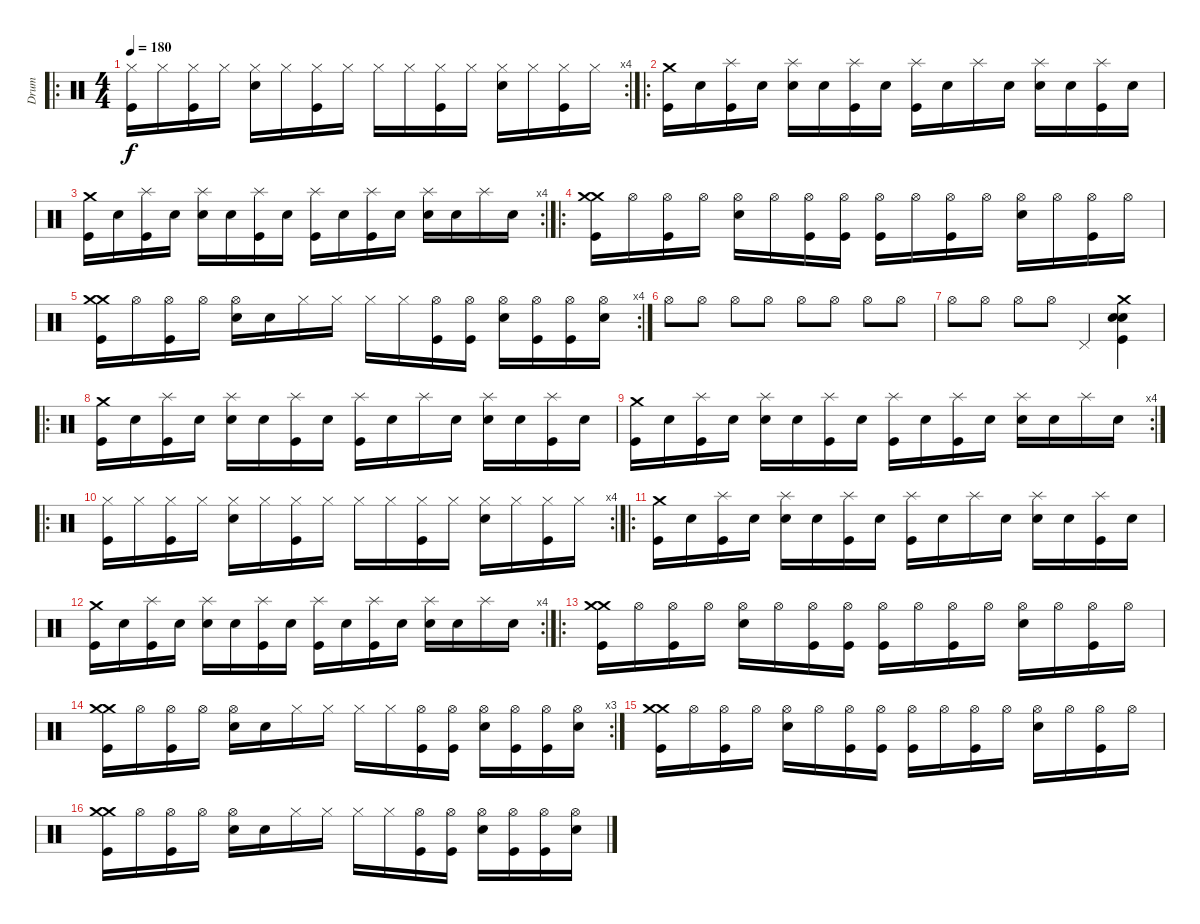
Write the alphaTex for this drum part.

\track ("Drum" "Drum") {instrument percussion}
\staff {score}
\articulation defaults
\ro
\rc 4
\ts (4 4)
\tempo 180
\clef neutral
\ks c
("Hi-Hat (closed)" "Kick (hit)").16{dy f} "Hi-Hat (closed)".16 ("Hi-Hat (closed)" "Kick (hit)").16 "Hi-Hat (closed)".16 ("Hi-Hat (closed)" "Snare (hit) 2").16 "Hi-Hat (closed)".16 ("Hi-Hat (closed)" "Kick (hit)").16 "Hi-Hat (closed)".16 "Hi-Hat (closed)".16 "Hi-Hat (closed)".16 ("Hi-Hat (closed)" "Kick (hit)").16 "Hi-Hat (closed)".16 ("Hi-Hat (closed)" "Snare (hit) 2").16 "Hi-Hat (closed)".16 ("Hi-Hat (closed)" "Kick (hit)").16 "Hi-Hat (closed)".16 |
\ro
("Crash medium (hit)" "Kick (hit)").16 "Snare (hit)".16 ("Splash (hit)" "Kick (hit)").16 "Snare (hit)".16 ("Splash (hit)" "Snare (hit) 2").16 "Snare (hit)".16 ("Splash (hit)" "Kick (hit)").16 "Snare (hit)".16 ("Splash (hit)" "Kick (hit)").16 "Snare (hit)".16 "Splash (hit)".16 "Snare (hit)".16 ("Splash (hit)" "Snare (hit) 2").16 "Snare (hit)".16 ("Splash (hit)" "Kick (hit)").16 "Snare (hit)".16 |
\rc 4
("Crash medium (hit)" "Kick (hit)").16 "Snare (hit)".16 ("Splash (hit)" "Kick (hit)").16 "Snare (hit)".16 ("Splash (hit)" "Snare (hit) 2").16 "Snare (hit)".16 ("Splash (hit)" "Kick (hit)").16 "Snare (hit)".16 ("Splash (hit)" "Kick (hit)").16 "Snare (hit)".16 ("Splash (hit)" "Kick (hit)").16 "Snare (hit)".16 ("Splash (hit)" "Snare (hit) 2").16 "Snare (hit)".16 "Splash (hit)".16 "Snare (hit)".16 |
\ro
("Crash medium (hit)" "Crash medium (hit)" "Kick (hit)").16 "Hi-Hat (open)".16 ("Hi-Hat (open)" "Kick (hit)").16 "Hi-Hat (open)".16 ("Hi-Hat (open)" "Snare (hit) 2").16 "Hi-Hat (open)".16 ("Hi-Hat (open)" "Kick (hit)").16 ("Hi-Hat (open)" "Kick (hit)").16 ("Hi-Hat (open)" "Kick (hit)").16 "Hi-Hat (open)".16 ("Hi-Hat (open)" "Kick (hit)").16 "Hi-Hat (open)".16 ("Hi-Hat (open)" "Snare (hit) 2").16 "Hi-Hat (open)".16 ("Hi-Hat (open)" "Kick (hit)").16 "Hi-Hat (open)".16 |
\rc 4
("Crash medium (hit)" "Crash medium (hit)" "Kick (hit)").16 "Hi-Hat (open)".16 ("Hi-Hat (open)" "Kick (hit)").16 "Hi-Hat (open)".16 ("Hi-Hat (open)" "Snare (hit) 2").16 "Snare (hit)".16 "Hi-Hat (closed)".16 "Hi-Hat (closed)".16 "Hi-Hat (closed)".16 "Hi-Hat (closed)".16 ("Hi-Hat (open)" "Kick (hit)").16 ("Hi-Hat (open)" "Kick (hit)").16 ("Hi-Hat (open)" "Snare (hit) 2").16 ("Hi-Hat (open)" "Kick (hit)").16 ("Hi-Hat (open)" "Kick (hit)").16 ("Hi-Hat (open)" "Snare (hit) 2").16 |
"Hi-Hat (open)".8 "Hi-Hat (open)".8 "Hi-Hat (open)".8 "Hi-Hat (open)".8 "Hi-Hat (open)".8 "Hi-Hat (open)".8 "Hi-Hat (open)".8 "Hi-Hat (open)".8 |
"Hi-Hat (open)".8 "Hi-Hat (open)".8 "Hi-Hat (open)".8 "Hi-Hat (open)".8 "Pedal Hi-Hat (hit)".4 ("Crash medium (hit)" "Snare (hit) 2" "Snare (hit) 2" "Kick (hit)").4 |
\ro
("Crash medium (hit)" "Kick (hit)").16 "Snare (hit)".16 ("Splash (hit)" "Kick (hit)").16 "Snare (hit)".16 ("Splash (hit)" "Snare (hit) 2").16 "Snare (hit)".16 ("Splash (hit)" "Kick (hit)").16 "Snare (hit)".16 ("Splash (hit)" "Kick (hit)").16 "Snare (hit)".16 "Splash (hit)".16 "Snare (hit)".16 ("Splash (hit)" "Snare (hit) 2").16 "Snare (hit)".16 ("Splash (hit)" "Kick (hit)").16 "Snare (hit)".16 |
\rc 4
("Crash medium (hit)" "Kick (hit)").16 "Snare (hit)".16 ("Splash (hit)" "Kick (hit)").16 "Snare (hit)".16 ("Splash (hit)" "Snare (hit) 2").16 "Snare (hit)".16 ("Splash (hit)" "Kick (hit)").16 "Snare (hit)".16 ("Splash (hit)" "Kick (hit)").16 "Snare (hit)".16 ("Splash (hit)" "Kick (hit)").16 "Snare (hit)".16 ("Splash (hit)" "Snare (hit) 2").16 "Snare (hit)".16 "Splash (hit)".16 "Snare (hit)".16 |
\ro
\rc 4
("Hi-Hat (closed)" "Kick (hit)").16 "Hi-Hat (closed)".16 ("Hi-Hat (closed)" "Kick (hit)").16 "Hi-Hat (closed)".16 ("Hi-Hat (closed)" "Snare (hit) 2").16 "Hi-Hat (closed)".16 ("Hi-Hat (closed)" "Kick (hit)").16 "Hi-Hat (closed)".16 "Hi-Hat (closed)".16 "Hi-Hat (closed)".16 ("Hi-Hat (closed)" "Kick (hit)").16 "Hi-Hat (closed)".16 ("Hi-Hat (closed)" "Snare (hit) 2").16 "Hi-Hat (closed)".16 ("Hi-Hat (closed)" "Kick (hit)").16 "Hi-Hat (closed)".16 |
\ro
("Crash medium (hit)" "Kick (hit)").16 "Snare (hit)".16 ("Splash (hit)" "Kick (hit)").16 "Snare (hit)".16 ("Splash (hit)" "Snare (hit) 2").16 "Snare (hit)".16 ("Splash (hit)" "Kick (hit)").16 "Snare (hit)".16 ("Splash (hit)" "Kick (hit)").16 "Snare (hit)".16 "Splash (hit)".16 "Snare (hit)".16 ("Splash (hit)" "Snare (hit) 2").16 "Snare (hit)".16 ("Splash (hit)" "Kick (hit)").16 "Snare (hit)".16 |
\rc 4
("Crash medium (hit)" "Kick (hit)").16 "Snare (hit)".16 ("Splash (hit)" "Kick (hit)").16 "Snare (hit)".16 ("Splash (hit)" "Snare (hit) 2").16 "Snare (hit)".16 ("Splash (hit)" "Kick (hit)").16 "Snare (hit)".16 ("Splash (hit)" "Kick (hit)").16 "Snare (hit)".16 ("Splash (hit)" "Kick (hit)").16 "Snare (hit)".16 ("Splash (hit)" "Snare (hit) 2").16 "Snare (hit)".16 "Splash (hit)".16 "Snare (hit)".16 |
\ro
("Crash medium (hit)" "Crash medium (hit)" "Kick (hit)").16 "Hi-Hat (open)".16 ("Hi-Hat (open)" "Kick (hit)").16 "Hi-Hat (open)".16 ("Hi-Hat (open)" "Snare (hit) 2").16 "Hi-Hat (open)".16 ("Hi-Hat (open)" "Kick (hit)").16 ("Hi-Hat (open)" "Kick (hit)").16 ("Hi-Hat (open)" "Kick (hit)").16 "Hi-Hat (open)".16 ("Hi-Hat (open)" "Kick (hit)").16 "Hi-Hat (open)".16 ("Hi-Hat (open)" "Snare (hit) 2").16 "Hi-Hat (open)".16 ("Hi-Hat (open)" "Kick (hit)").16 "Hi-Hat (open)".16 |
\rc 3
("Crash medium (hit)" "Crash medium (hit)" "Kick (hit)").16 "Hi-Hat (open)".16 ("Hi-Hat (open)" "Kick (hit)").16 "Hi-Hat (open)".16 ("Hi-Hat (open)" "Snare (hit) 2").16 "Snare (hit)".16 "Hi-Hat (closed)".16 "Hi-Hat (closed)".16 "Hi-Hat (closed)".16 "Hi-Hat (closed)".16 ("Hi-Hat (open)" "Kick (hit)").16 ("Hi-Hat (open)" "Kick (hit)").16 ("Hi-Hat (open)" "Snare (hit) 2").16 ("Hi-Hat (open)" "Kick (hit)").16 ("Hi-Hat (open)" "Kick (hit)").16 ("Hi-Hat (open)" "Snare (hit) 2").16 |
("Crash medium (hit)" "Crash medium (hit)" "Kick (hit)").16 "Hi-Hat (open)".16 ("Hi-Hat (open)" "Kick (hit)").16 "Hi-Hat (open)".16 ("Hi-Hat (open)" "Snare (hit) 2").16 "Hi-Hat (open)".16 ("Hi-Hat (open)" "Kick (hit)").16 ("Hi-Hat (open)" "Kick (hit)").16 ("Hi-Hat (open)" "Kick (hit)").16 "Hi-Hat (open)".16 ("Hi-Hat (open)" "Kick (hit)").16 "Hi-Hat (open)".16 ("Hi-Hat (open)" "Snare (hit) 2").16 "Hi-Hat (open)".16 ("Hi-Hat (open)" "Kick (hit)").16 "Hi-Hat (open)".16 |
("Crash medium (hit)" "Crash medium (hit)" "Kick (hit)").16 "Hi-Hat (open)".16 ("Hi-Hat (open)" "Kick (hit)").16 "Hi-Hat (open)".16 ("Hi-Hat (open)" "Snare (hit) 2").16 "Snare (hit)".16 "Hi-Hat (closed)".16 "Hi-Hat (closed)".16 "Hi-Hat (closed)".16 "Hi-Hat (closed)".16 ("Hi-Hat (open)" "Kick (hit)").16 ("Hi-Hat (open)" "Kick (hit)").16 ("Hi-Hat (open)" "Snare (hit) 2").16 ("Hi-Hat (open)" "Kick (hit)").16 ("Hi-Hat (open)" "Kick (hit)").16 ("Hi-Hat (open)" "Snare (hit) 2").16
